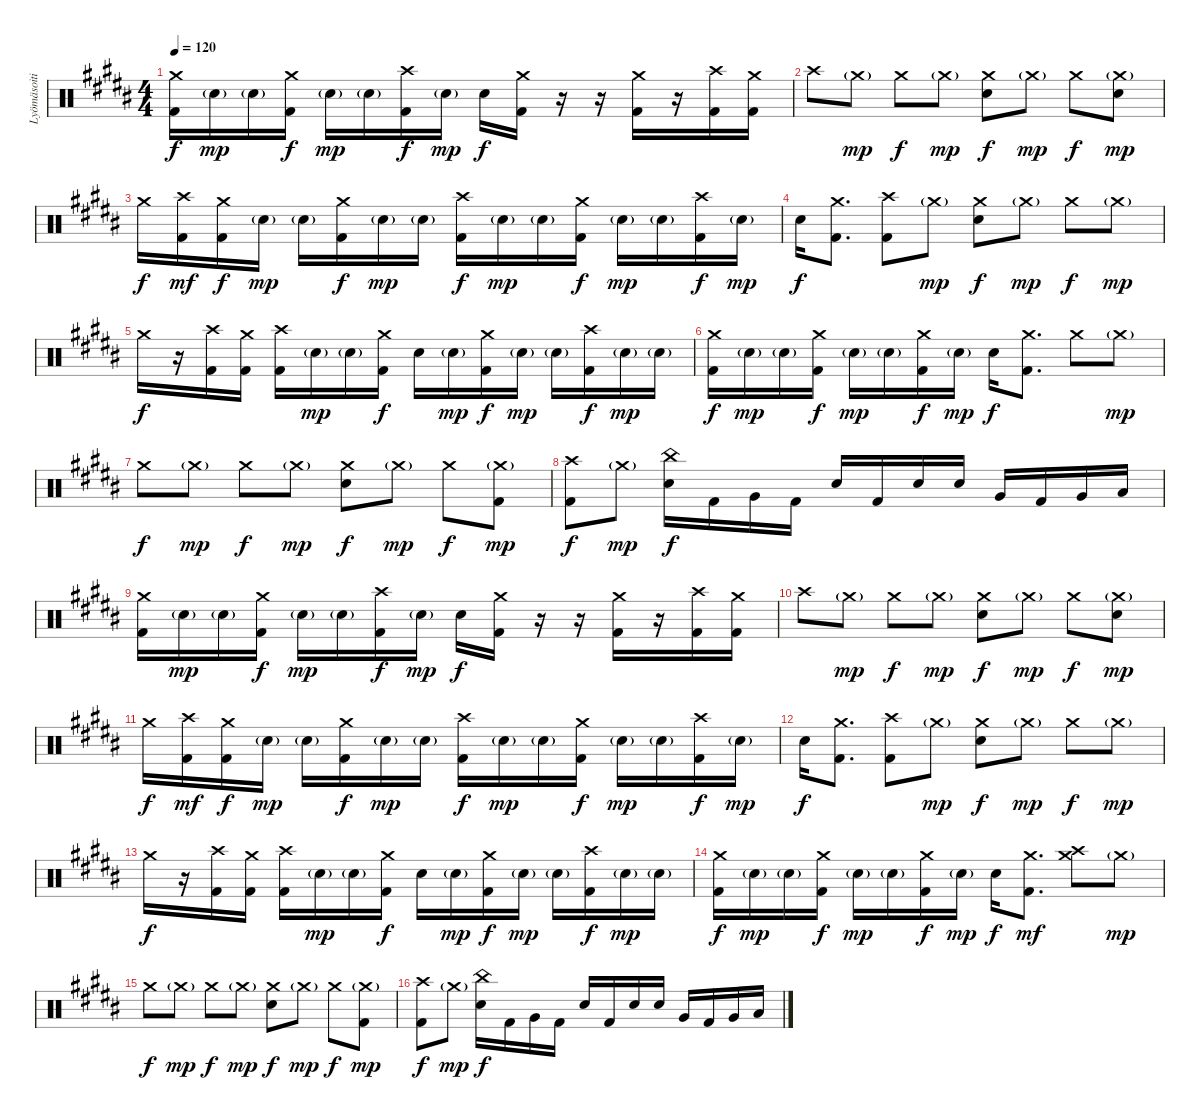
\track ("Lyömäsoitin" "Lyömäsoiti") {instrument percussion}
\staff {score}
\articulation defaults
\ts (4 4)
\tempo 120
\clef neutral
\ks g#minor
("Crash medium (hit)" "Kick (hit) 2").16{dy f} "Electric Snare (hit)"{g}.16{dy mp} "Electric Snare (hit)"{g}.16 ("Crash medium (hit)" "Kick (hit) 2").16{dy f} "Electric Snare (hit)"{g}.16{dy mp} "Electric Snare (hit)"{g}.16 ("Crash high (hit)" "Kick (hit) 2").16{dy f} "Electric Snare (hit)"{g}.16{dy mp} "Electric Snare (hit)".16{dy f} ("Crash medium (hit)" "Kick (hit) 2").16 r.16 r.16 ("Crash medium (hit)" "Kick (hit) 2").16 r.16 ("Crash high (hit)" "Kick (hit) 2").16 ("Crash medium (hit)" "Kick (hit) 2").16 |
"Crash high (hit)".8 "Crash medium (hit)"{g}.8{dy mp} "Crash medium (hit)".8{dy f} "Crash medium (hit)"{g}.8{dy mp} ("Crash medium (hit)" "Electric Snare (hit)").8{dy f} "Crash medium (hit)"{g}.8{dy mp} "Crash medium (hit)".8{dy f} ("Crash medium (hit)"{g} "Electric Snare (hit)").8{dy mp} |
"Crash medium (hit)".16{dy f} ("Crash high (hit)" "Kick (hit) 2").16{dy mf} ("Crash medium (hit)" "Kick (hit) 2").16{dy f} "Electric Snare (hit)"{g}.16{dy mp} "Electric Snare (hit)"{g}.16 ("Crash medium (hit)" "Kick (hit) 2").16{dy f} "Electric Snare (hit)"{g}.16{dy mp} "Electric Snare (hit)"{g}.16 ("Crash high (hit)" "Kick (hit) 2").16{dy f} "Electric Snare (hit)"{g}.16{dy mp} "Electric Snare (hit)"{g}.16 ("Crash medium (hit)" "Kick (hit) 2").16{dy f} "Electric Snare (hit)"{g}.16{dy mp} "Electric Snare (hit)"{g}.16 ("Crash high (hit)" "Kick (hit) 2").16{dy f} "Electric Snare (hit)"{g}.16{dy mp} |
"Electric Snare (hit)".16{dy f} ("Crash medium (hit)" "Kick (hit) 2").8{d} ("Crash high (hit)" "Kick (hit) 2").8 "Crash medium (hit)"{g}.8{dy mp} ("Crash medium (hit)" "Electric Snare (hit)").8{dy f} "Crash medium (hit)"{g}.8{dy mp} "Crash medium (hit)".8{dy f} "Crash medium (hit)"{g}.8{dy mp} |
"Crash medium (hit)".16{dy f} r.16 ("Crash high (hit)" "Kick (hit) 2").16 ("Crash medium (hit)" "Kick (hit) 2").16 ("Crash high (hit)" "Kick (hit) 2").16 "Electric Snare (hit)"{g}.16{dy mp} "Electric Snare (hit)"{g}.16 ("Crash medium (hit)" "Kick (hit) 2").16{dy f} "Electric Snare (hit)".16 "Electric Snare (hit)"{g}.16{dy mp} ("Crash medium (hit)" "Kick (hit) 2").16{dy f} "Electric Snare (hit)"{g}.16{dy mp} "Electric Snare (hit)"{g}.16 ("Crash high (hit)" "Kick (hit) 2").16{dy f} "Electric Snare (hit)"{g}.16{dy mp} "Electric Snare (hit)"{g}.16 |
("Crash medium (hit)" "Kick (hit) 2").16{dy f} "Electric Snare (hit)"{g}.16{dy mp} "Electric Snare (hit)"{g}.16 ("Crash medium (hit)" "Kick (hit) 2").16{dy f} "Electric Snare (hit)"{g}.16{dy mp} "Electric Snare (hit)"{g}.16 ("Crash medium (hit)" "Kick (hit) 2").16{dy f} "Electric Snare (hit)"{g}.16{dy mp} "Electric Snare (hit)".16{dy f} ("Crash medium (hit)" "Kick (hit) 2").8{d} "Crash medium (hit)".8 "Crash medium (hit)"{g}.8{dy mp} |
"Crash medium (hit)".8{dy f} "Crash medium (hit)"{g}.8{dy mp} "Crash medium (hit)".8{dy f} "Crash medium (hit)"{g}.8{dy mp} ("Crash medium (hit)" "Electric Snare (hit)").8{dy f} "Crash medium (hit)"{g}.8{dy mp} "Crash medium (hit)".8{dy f} ("Crash medium (hit)"{g} "Kick (hit) 2").8{dy mp} |
("Crash high (hit)" "Kick (hit) 2").8{dy f} "Crash medium (hit)"{g}.8{dy mp} ("China (hit)" "Electric Snare (hit)").16{dy f} "Kick (hit) 2".16 "Very Low Tom (hit)".16 "Kick (hit) 2".16 "Electric Snare (hit)".16 "Kick (hit) 2".16 "Electric Snare (hit)".16 "Electric Snare (hit)".16 "Very Low Tom (hit)".16 "Kick (hit) 2".16 "Very Low Tom (hit)".16 "Low Floor Tom (hit)".16 |
("Crash medium (hit)" "Kick (hit) 2").16 "Electric Snare (hit)"{g}.16{dy mp} "Electric Snare (hit)"{g}.16 ("Crash medium (hit)" "Kick (hit) 2").16{dy f} "Electric Snare (hit)"{g}.16{dy mp} "Electric Snare (hit)"{g}.16 ("Crash high (hit)" "Kick (hit) 2").16{dy f} "Electric Snare (hit)"{g}.16{dy mp} "Electric Snare (hit)".16{dy f} ("Crash medium (hit)" "Kick (hit) 2").16 r.16 r.16 ("Crash medium (hit)" "Kick (hit) 2").16 r.16 ("Crash high (hit)" "Kick (hit) 2").16 ("Crash medium (hit)" "Kick (hit) 2").16 |
"Crash high (hit)".8 "Crash medium (hit)"{g}.8{dy mp} "Crash medium (hit)".8{dy f} "Crash medium (hit)"{g}.8{dy mp} ("Crash medium (hit)" "Electric Snare (hit)").8{dy f} "Crash medium (hit)"{g}.8{dy mp} "Crash medium (hit)".8{dy f} ("Crash medium (hit)"{g} "Electric Snare (hit)").8{dy mp} |
"Crash medium (hit)".16{dy f} ("Crash high (hit)" "Kick (hit) 2").16{dy mf} ("Crash medium (hit)" "Kick (hit) 2").16{dy f} "Electric Snare (hit)"{g}.16{dy mp} "Electric Snare (hit)"{g}.16 ("Crash medium (hit)" "Kick (hit) 2").16{dy f} "Electric Snare (hit)"{g}.16{dy mp} "Electric Snare (hit)"{g}.16 ("Crash high (hit)" "Kick (hit) 2").16{dy f} "Electric Snare (hit)"{g}.16{dy mp} "Electric Snare (hit)"{g}.16 ("Crash medium (hit)" "Kick (hit) 2").16{dy f} "Electric Snare (hit)"{g}.16{dy mp} "Electric Snare (hit)"{g}.16 ("Crash high (hit)" "Kick (hit) 2").16{dy f} "Electric Snare (hit)"{g}.16{dy mp} |
"Electric Snare (hit)".16{dy f} ("Crash medium (hit)" "Kick (hit) 2").8{d} ("Crash high (hit)" "Kick (hit) 2").8 "Crash medium (hit)"{g}.8{dy mp} ("Crash medium (hit)" "Electric Snare (hit)").8{dy f} "Crash medium (hit)"{g}.8{dy mp} "Crash medium (hit)".8{dy f} "Crash medium (hit)"{g}.8{dy mp} |
"Crash medium (hit)".16{dy f} r.16 ("Crash high (hit)" "Kick (hit) 2").16 ("Crash medium (hit)" "Kick (hit) 2").16 ("Crash high (hit)" "Kick (hit) 2").16 "Electric Snare (hit)"{g}.16{dy mp} "Electric Snare (hit)"{g}.16 ("Crash medium (hit)" "Kick (hit) 2").16{dy f} "Electric Snare (hit)".16 "Electric Snare (hit)"{g}.16{dy mp} ("Crash medium (hit)" "Kick (hit) 2").16{dy f} "Electric Snare (hit)"{g}.16{dy mp} "Electric Snare (hit)"{g}.16 ("Crash high (hit)" "Kick (hit) 2").16{dy f} "Electric Snare (hit)"{g}.16{dy mp} "Electric Snare (hit)"{g}.16 |
("Crash medium (hit)" "Kick (hit) 2").16{dy f} "Electric Snare (hit)"{g}.16{dy mp} "Electric Snare (hit)"{g}.16 ("Crash medium (hit)" "Kick (hit) 2").16{dy f} "Electric Snare (hit)"{g}.16{dy mp} "Electric Snare (hit)"{g}.16 ("Crash medium (hit)" "Kick (hit) 2").16{dy f} "Electric Snare (hit)"{g}.16{dy mp} "Electric Snare (hit)".16{dy f} ("Crash medium (hit)" "Kick (hit) 2").8{d dy mf} ("Crash medium (hit)" "Crash high (hit)").8 "Crash medium (hit)"{g}.8{dy mp} |
"Crash medium (hit)".8{dy f} "Crash medium (hit)"{g}.8{dy mp} "Crash medium (hit)".8{dy f} "Crash medium (hit)"{g}.8{dy mp} ("Crash medium (hit)" "Electric Snare (hit)").8{dy f} "Crash medium (hit)"{g}.8{dy mp} "Crash medium (hit)".8{dy f} ("Crash medium (hit)"{g} "Kick (hit) 2").8{dy mp} |
("Crash high (hit)" "Kick (hit) 2").8{dy f} "Crash medium (hit)"{g}.8{dy mp} ("China (hit)" "Electric Snare (hit)").16{dy f} "Kick (hit) 2".16 "Very Low Tom (hit)".16 "Kick (hit) 2".16 "Electric Snare (hit)".16 "Kick (hit) 2".16 "Electric Snare (hit)".16 "Electric Snare (hit)".16 "Very Low Tom (hit)".16 "Kick (hit) 2".16 "Very Low Tom (hit)".16 "Low Floor Tom (hit)".16
